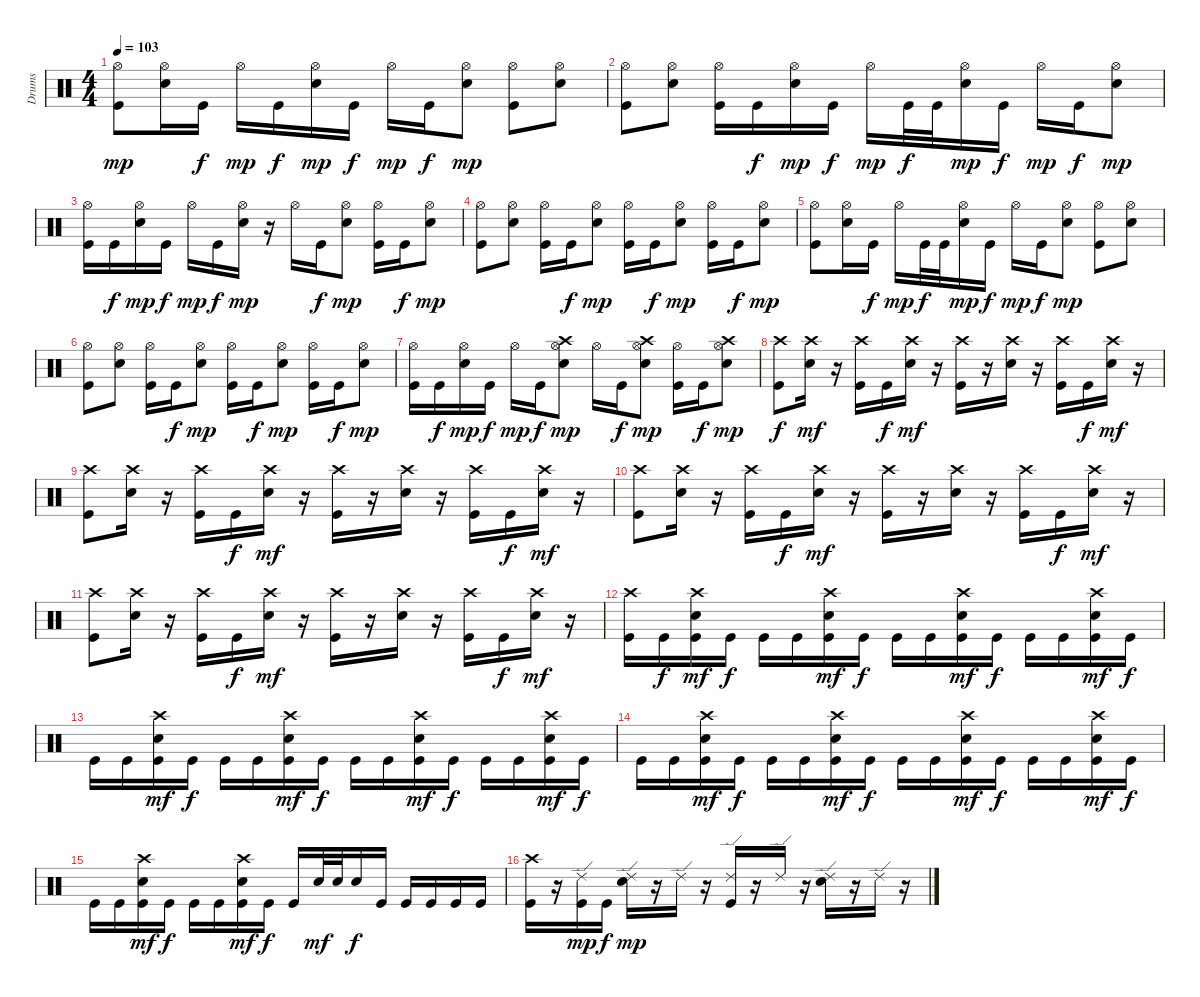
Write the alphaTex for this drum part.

\track ("Drums" "Drums") {instrument percussion}
\staff {score}
\articulation defaults
\ts (4 4)
\tempo 103
\clef neutral
\ks c
("Hi-Hat (open)" "Kick (hit)").8{dy mp} ("Hi-Hat (open)" "Snare (hit) 2").16 "Kick (hit)".16{dy f} "Hi-Hat (open)".16{dy mp} "Kick (hit)".16{dy f} ("Hi-Hat (open)" "Snare (hit) 2").16{dy mp} "Kick (hit)".16{dy f} "Hi-Hat (open)".16{dy mp} "Kick (hit)".16{dy f} ("Hi-Hat (open)" "Snare (hit) 2").8{dy mp} ("Hi-Hat (open)" "Kick (hit)").8 ("Hi-Hat (open)" "Snare (hit) 2").8 |
("Hi-Hat (open)" "Kick (hit)").8 ("Hi-Hat (open)" "Snare (hit) 2").8 ("Hi-Hat (open)" "Kick (hit)").16 "Kick (hit)".16{dy f} ("Hi-Hat (open)" "Snare (hit) 2").16{dy mp} "Kick (hit)".16{dy f} "Hi-Hat (open)".16{dy mp} "Kick (hit)".32{dy f} "Kick (hit)".32 ("Hi-Hat (open)" "Snare (hit) 2").16{dy mp} "Kick (hit)".16{dy f} "Hi-Hat (open)".16{dy mp} "Kick (hit)".16{dy f} ("Hi-Hat (open)" "Snare (hit) 2").8{dy mp} |
("Hi-Hat (open)" "Kick (hit)").16 "Kick (hit)".16{dy f} ("Hi-Hat (open)" "Snare (hit) 2").16{dy mp} "Kick (hit)".16{dy f} "Hi-Hat (open)".16{dy mp} "Kick (hit)".16{dy f} ("Hi-Hat (open)" "Snare (hit) 2").16{dy mp} r.16 "Hi-Hat (open)".16 "Kick (hit)".16{dy f} ("Hi-Hat (open)" "Snare (hit) 2").8{dy mp} ("Hi-Hat (open)" "Kick (hit)").16 "Kick (hit)".16{dy f} ("Hi-Hat (open)" "Snare (hit) 2").8{dy mp} |
("Hi-Hat (open)" "Kick (hit)").8 ("Hi-Hat (open)" "Snare (hit) 2").8 ("Hi-Hat (open)" "Kick (hit)").16 "Kick (hit)".16{dy f} ("Hi-Hat (open)" "Snare (hit) 2").8{dy mp} ("Hi-Hat (open)" "Kick (hit)").16 "Kick (hit)".16{dy f} ("Hi-Hat (open)" "Snare (hit) 2").8{dy mp} ("Hi-Hat (open)" "Kick (hit)").16 "Kick (hit)".16{dy f} ("Hi-Hat (open)" "Snare (hit) 2").8{dy mp} |
("Hi-Hat (open)" "Kick (hit)").8 ("Hi-Hat (open)" "Snare (hit) 2").16 "Kick (hit)".16{dy f} "Hi-Hat (open)".16{dy mp} "Kick (hit)".32{dy f} "Kick (hit)".32 ("Hi-Hat (open)" "Snare (hit) 2").16{dy mp} "Kick (hit)".16{dy f} "Hi-Hat (open)".16{dy mp} "Kick (hit)".16{dy f} ("Hi-Hat (open)" "Snare (hit) 2").8{dy mp} ("Hi-Hat (open)" "Kick (hit)").8 ("Hi-Hat (open)" "Snare (hit) 2").8 |
("Hi-Hat (open)" "Kick (hit)").8 ("Hi-Hat (open)" "Snare (hit) 2").8 ("Hi-Hat (open)" "Kick (hit)").16 "Kick (hit)".16{dy f} ("Hi-Hat (open)" "Snare (hit) 2").8{dy mp} ("Hi-Hat (open)" "Kick (hit)").16 "Kick (hit)".16{dy f} ("Hi-Hat (open)" "Snare (hit) 2").8{dy mp} ("Hi-Hat (open)" "Kick (hit)").16 "Kick (hit)".16{dy f} ("Hi-Hat (open)" "Snare (hit) 2").8{dy mp} |
("Hi-Hat (open)" "Kick (hit)").16 "Kick (hit)".16{dy f} ("Hi-Hat (open)" "Snare (hit) 2").16{dy mp} "Kick (hit)".16{dy f} "Hi-Hat (open)".16{dy mp} "Kick (hit)".16{dy f} ("Crash high (hit)" "Hi-Hat (open)" "Snare (hit) 2").8{dy mp} "Hi-Hat (open)".16 "Kick (hit)".16{dy f} ("Crash high (hit)" "Hi-Hat (open)" "Snare (hit) 2").8{dy mp} ("Hi-Hat (open)" "Kick (hit)").16 "Kick (hit)".16{dy f} ("Crash high (hit)" "Hi-Hat (open)" "Snare (hit) 2").8{dy mp} |
("Crash high (hit)" "Kick (hit)").8{dy f} ("Crash high (hit)" "Snare (hit) 2").16{dy mf} r.16 ("Crash high (hit)" "Kick (hit)").16 "Kick (hit)".16{dy f} ("Crash high (hit)" "Snare (hit) 2").16{dy mf} r.16 ("Crash high (hit)" "Kick (hit)").16 r.16 ("Crash high (hit)" "Snare (hit) 2").16 r.16 ("Crash high (hit)" "Kick (hit)").16 "Kick (hit)".16{dy f} ("Crash high (hit)" "Snare (hit) 2").16{dy mf} r.16 |
("Crash high (hit)" "Kick (hit)").8 ("Crash high (hit)" "Snare (hit) 2").16 r.16 ("Crash high (hit)" "Kick (hit)").16 "Kick (hit)".16{dy f} ("Crash high (hit)" "Snare (hit) 2").16{dy mf} r.16 ("Crash high (hit)" "Kick (hit)").16 r.16 ("Crash high (hit)" "Snare (hit) 2").16 r.16 ("Crash high (hit)" "Kick (hit)").16 "Kick (hit)".16{dy f} ("Crash high (hit)" "Snare (hit) 2").16{dy mf} r.16 |
("Crash high (hit)" "Kick (hit)").8 ("Crash high (hit)" "Snare (hit) 2").16 r.16 ("Crash high (hit)" "Kick (hit)").16 "Kick (hit)".16{dy f} ("Crash high (hit)" "Snare (hit) 2").16{dy mf} r.16 ("Crash high (hit)" "Kick (hit)").16 r.16 ("Crash high (hit)" "Snare (hit) 2").16 r.16 ("Crash high (hit)" "Kick (hit)").16 "Kick (hit)".16{dy f} ("Crash high (hit)" "Snare (hit) 2").16{dy mf} r.16 |
("Crash high (hit)" "Kick (hit)").8 ("Crash high (hit)" "Snare (hit) 2").16 r.16 ("Crash high (hit)" "Kick (hit)").16 "Kick (hit)".16{dy f} ("Crash high (hit)" "Snare (hit) 2").16{dy mf} r.16 ("Crash high (hit)" "Kick (hit)").16 r.16 ("Crash high (hit)" "Snare (hit) 2").16 r.16 ("Crash high (hit)" "Kick (hit)").16 "Kick (hit)".16{dy f} ("Crash high (hit)" "Snare (hit) 2").16{dy mf} r.16 |
("Crash high (hit)" "Kick (hit)").16 "Kick (hit)".16{dy f} ("Crash high (hit)" "Snare (hit) 2" "Kick (hit)").16{dy mf} "Kick (hit)".16{dy f} "Kick (hit)".16 "Kick (hit)".16 ("Crash high (hit)" "Snare (hit) 2" "Kick (hit)").16{dy mf} "Kick (hit)".16{dy f} "Kick (hit)".16 "Kick (hit)".16 ("Crash high (hit)" "Snare (hit) 2" "Kick (hit)").16{dy mf} "Kick (hit)".16{dy f} "Kick (hit)".16 "Kick (hit)".16 ("Crash high (hit)" "Snare (hit) 2" "Kick (hit)").16{dy mf} "Kick (hit)".16{dy f} |
"Kick (hit)".16 "Kick (hit)".16 ("Crash high (hit)" "Snare (hit) 2" "Kick (hit)").16{dy mf} "Kick (hit)".16{dy f} "Kick (hit)".16 "Kick (hit)".16 ("Crash high (hit)" "Snare (hit) 2" "Kick (hit)").16{dy mf} "Kick (hit)".16{dy f} "Kick (hit)".16 "Kick (hit)".16 ("Crash high (hit)" "Snare (hit) 2" "Kick (hit)").16{dy mf} "Kick (hit)".16{dy f} "Kick (hit)".16 "Kick (hit)".16 ("Crash high (hit)" "Snare (hit) 2" "Kick (hit)").16{dy mf} "Kick (hit)".16{dy f} |
"Kick (hit)".16 "Kick (hit)".16 ("Crash high (hit)" "Snare (hit) 2" "Kick (hit)").16{dy mf} "Kick (hit)".16{dy f} "Kick (hit)".16 "Kick (hit)".16 ("Crash high (hit)" "Snare (hit) 2" "Kick (hit)").16{dy mf} "Kick (hit)".16{dy f} "Kick (hit)".16 "Kick (hit)".16 ("Crash high (hit)" "Snare (hit) 2" "Kick (hit)").16{dy mf} "Kick (hit)".16{dy f} "Kick (hit)".16 "Kick (hit)".16 ("Crash high (hit)" "Snare (hit) 2" "Kick (hit)").16{dy mf} "Kick (hit)".16{dy f} |
"Kick (hit)".16 "Kick (hit)".16 ("Crash high (hit)" "Snare (hit) 2" "Kick (hit)").16{dy mf} "Kick (hit)".16{dy f} "Kick (hit)".16 "Kick (hit)".16 ("Crash high (hit)" "Snare (hit) 2" "Kick (hit)").16{dy mf} "Kick (hit)".16{dy f} "Kick (hit)".16 "Snare (hit) 2".32{dy mf} "Snare (hit) 2".32 "Snare (hit) 2".16{dy f} "Kick (hit)".16 "Kick (hit)".16 "Kick (hit)".16 "Kick (hit)".16 "Kick (hit)".16 |
("Crash high (hit)" "Kick (hit)").16 r.16 ("Ride (edge) 2" "Kick (hit)").16{dy mp} "Kick (hit)".16{dy f} ("Ride (edge) 2" "Snare (hit) 2").16{dy mp} r.16 "Ride (edge) 2".16 r.16 ("Ride (edge) 2" "Kick (hit)").16 r.16 "Ride (edge) 2".16 r.16 ("Ride (edge) 2" "Snare (hit) 2").16 r.16 "Ride (edge) 2".16 r.16
